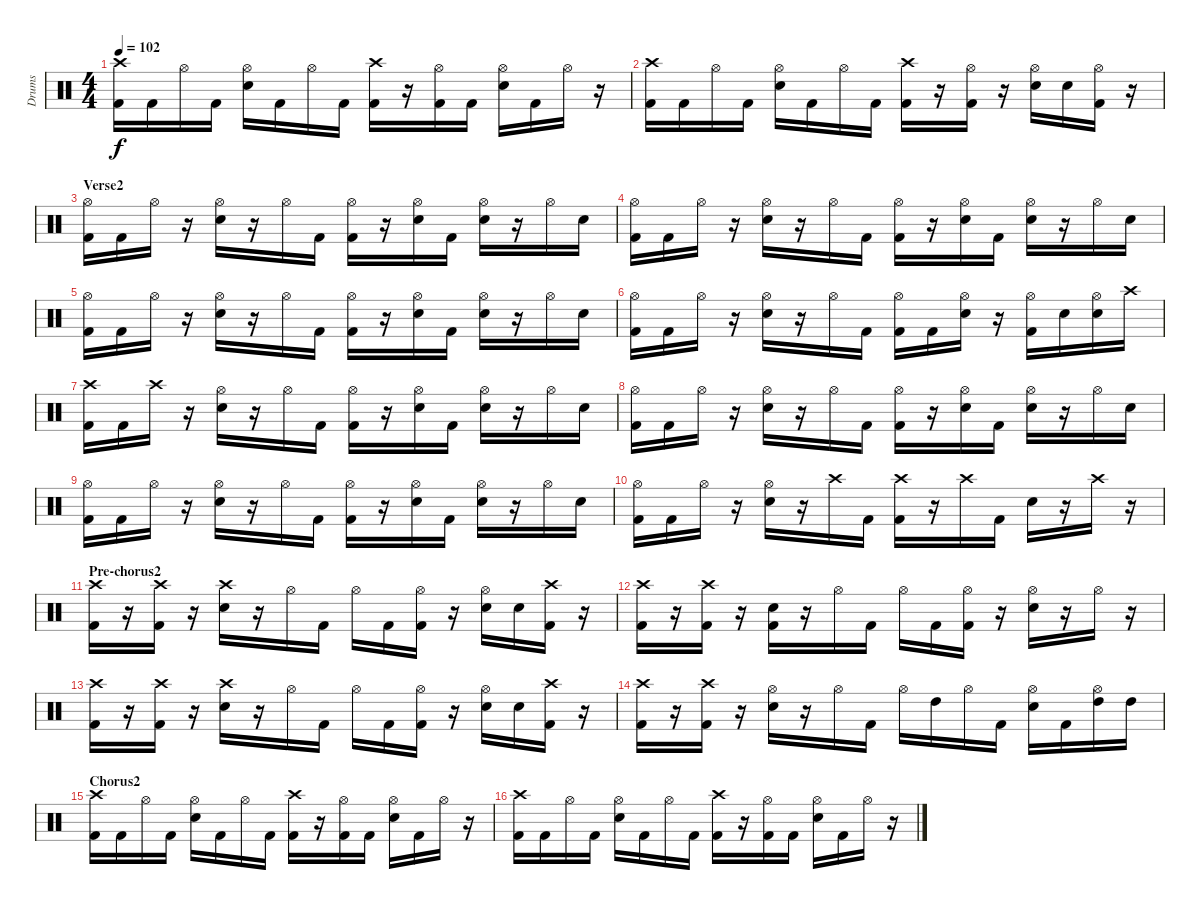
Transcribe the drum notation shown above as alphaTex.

\track ("Drums" "Drums") {instrument percussion}
\staff {score}
\articulation defaults
\ts (4 4)
\tempo 102
\clef neutral
\ks c
("Crash high (hit)" "Kick (hit) 2").16{dy f} "Kick (hit) 2".16 "Hi-Hat (open)".16 "Kick (hit) 2".16 ("Hi-Hat (open)" "Snare (hit) 2").16 "Kick (hit) 2".16 "Hi-Hat (open)".16 "Kick (hit) 2".16 ("Crash high (hit)" "Kick (hit) 2").16 r.16 ("Hi-Hat (open)" "Kick (hit) 2").16 "Kick (hit) 2".16 ("Hi-Hat (open)" "Snare (hit) 2").16 "Kick (hit) 2".16 "Hi-Hat (open)".16 r.16 |
("Crash high (hit)" "Kick (hit) 2").16 "Kick (hit) 2".16 "Hi-Hat (open)".16 "Kick (hit) 2".16 ("Hi-Hat (open)" "Snare (hit) 2").16 "Kick (hit) 2".16 "Hi-Hat (open)".16 "Kick (hit) 2".16 ("Crash high (hit)" "Kick (hit) 2").16 r.16 ("Hi-Hat (open)" "Kick (hit) 2").16 r.16 ("Hi-Hat (open)" "Snare (hit) 2").16 "Snare (hit) 2".16 ("Hi-Hat (open)" "Kick (hit) 2").16 r.16 |
\section ("" "Verse2")
("Hi-Hat (open)" "Kick (hit) 2").16 "Kick (hit) 2".16 "Hi-Hat (open)".16 r.16 ("Hi-Hat (open)" "Snare (hit) 2").16 r.16 "Hi-Hat (open)".16 "Kick (hit) 2".16 ("Hi-Hat (open)" "Kick (hit) 2").16 r.16 ("Hi-Hat (open)" "Snare (hit) 2").16 "Kick (hit) 2".16 ("Hi-Hat (open)" "Snare (hit) 2").16 r.16 "Hi-Hat (open)".16 "Snare (hit) 2".16 |
("Hi-Hat (open)" "Kick (hit) 2").16 "Kick (hit) 2".16 "Hi-Hat (open)".16 r.16 ("Hi-Hat (open)" "Snare (hit) 2").16 r.16 "Hi-Hat (open)".16 "Kick (hit) 2".16 ("Hi-Hat (open)" "Kick (hit) 2").16 r.16 ("Hi-Hat (open)" "Snare (hit) 2").16 "Kick (hit) 2".16 ("Hi-Hat (open)" "Snare (hit) 2").16 r.16 "Hi-Hat (open)".16 "Snare (hit) 2".16 |
("Hi-Hat (open)" "Kick (hit) 2").16 "Kick (hit) 2".16 "Hi-Hat (open)".16 r.16 ("Hi-Hat (open)" "Snare (hit) 2").16 r.16 "Hi-Hat (open)".16 "Kick (hit) 2".16 ("Hi-Hat (open)" "Kick (hit) 2").16 r.16 ("Hi-Hat (open)" "Snare (hit) 2").16 "Kick (hit) 2".16 ("Hi-Hat (open)" "Snare (hit) 2").16 r.16 "Hi-Hat (open)".16 "Snare (hit) 2".16 |
("Hi-Hat (open)" "Kick (hit) 2").16 "Kick (hit) 2".16 "Hi-Hat (open)".16 r.16 ("Hi-Hat (open)" "Snare (hit) 2").16 r.16 "Hi-Hat (open)".16 "Kick (hit) 2".16 ("Hi-Hat (open)" "Kick (hit) 2").16 "Kick (hit) 2".16 ("Hi-Hat (open)" "Snare (hit) 2").16 r.16 ("Hi-Hat (open)" "Kick (hit) 2").16 "Snare (hit) 2".16 ("Hi-Hat (open)" "Snare (hit) 2").16 "Crash high (hit)".16 |
("Crash high (hit)" "Kick (hit) 2").16 "Kick (hit) 2".16 "Crash high (hit)".16 r.16 ("Hi-Hat (open)" "Snare (hit) 2").16 r.16 "Hi-Hat (open)".16 "Kick (hit) 2".16 ("Hi-Hat (open)" "Kick (hit) 2").16 r.16 ("Hi-Hat (open)" "Snare (hit) 2").16 "Kick (hit) 2".16 ("Hi-Hat (open)" "Snare (hit) 2").16 r.16 "Hi-Hat (open)".16 "Snare (hit) 2".16 |
("Hi-Hat (open)" "Kick (hit) 2").16 "Kick (hit) 2".16 "Hi-Hat (open)".16 r.16 ("Hi-Hat (open)" "Snare (hit) 2").16 r.16 "Hi-Hat (open)".16 "Kick (hit) 2".16 ("Hi-Hat (open)" "Kick (hit) 2").16 r.16 ("Hi-Hat (open)" "Snare (hit) 2").16 "Kick (hit) 2".16 ("Hi-Hat (open)" "Snare (hit) 2").16 r.16 "Hi-Hat (open)".16 "Snare (hit) 2".16 |
("Hi-Hat (open)" "Kick (hit) 2").16 "Kick (hit) 2".16 "Hi-Hat (open)".16 r.16 ("Hi-Hat (open)" "Snare (hit) 2").16 r.16 "Hi-Hat (open)".16 "Kick (hit) 2".16 ("Hi-Hat (open)" "Kick (hit) 2").16 r.16 ("Hi-Hat (open)" "Snare (hit) 2").16 "Kick (hit) 2".16 ("Hi-Hat (open)" "Snare (hit) 2").16 r.16 "Hi-Hat (open)".16 "Snare (hit) 2".16 |
("Hi-Hat (open)" "Kick (hit) 2").16 "Kick (hit) 2".16 "Hi-Hat (open)".16 r.16 ("Hi-Hat (open)" "Snare (hit) 2").16 r.16 "Crash high (hit)".16 "Kick (hit) 2".16 ("Crash high (hit)" "Kick (hit) 2").16 r.16 "Crash high (hit)".16 "Kick (hit) 2".16 "Snare (hit) 2".16 r.16 "Crash high (hit)".16 r.16 |
\section ("" "Pre-chorus2")
("Crash high (hit)" "Kick (hit) 2").16 r.16 ("Crash high (hit)" "Kick (hit) 2").16 r.16 ("Crash high (hit)" "Snare (hit) 2").16 r.16 "Hi-Hat (open)".16 "Kick (hit) 2".16 "Hi-Hat (open)".16 "Kick (hit) 2".16 ("Hi-Hat (open)" "Kick (hit) 2").16 r.16 ("Hi-Hat (open)" "Snare (hit) 2").16 "Snare (hit) 2".16 ("Crash high (hit)" "Kick (hit) 2").16 r.16 |
("Crash high (hit)" "Kick (hit) 2").16 r.16 ("Crash high (hit)" "Kick (hit) 2").16 r.16 ("Kick (hit) 2" "Snare (hit) 2").16 r.16 "Hi-Hat (open)".16 "Kick (hit) 2".16 "Hi-Hat (open)".16 "Kick (hit) 2".16 ("Hi-Hat (open)" "Kick (hit) 2").16 r.16 ("Hi-Hat (open)" "Snare (hit) 2").16 r.16 "Hi-Hat (open)".16 r.16 |
("Crash high (hit)" "Kick (hit) 2").16 r.16 ("Crash high (hit)" "Kick (hit) 2").16 r.16 ("Crash high (hit)" "Snare (hit) 2").16 r.16 "Hi-Hat (open)".16 "Kick (hit) 2".16 "Hi-Hat (open)".16 "Kick (hit) 2".16 ("Hi-Hat (open)" "Kick (hit) 2").16 r.16 ("Hi-Hat (open)" "Snare (hit) 2").16 "Snare (hit) 2".16 ("Crash high (hit)" "Kick (hit) 2").16 r.16 |
("Crash high (hit)" "Kick (hit) 2").16 r.16 ("Crash high (hit)" "Kick (hit) 2").16 r.16 ("Hi-Hat (open)" "Snare (hit) 2").16 r.16 "Hi-Hat (open)".16 "Kick (hit) 2".16 "Hi-Hat (open)".16 "High Tom (hit)".16 "Hi-Hat (open)".16 "Kick (hit) 2".16 ("Hi-Hat (open)" "Snare (hit) 2").16 "Kick (hit) 2".16 ("High Tom (hit)" "Hi-Hat (open)").16 "High Tom (hit)".16 |
\section ("" "Chorus2")
("Crash high (hit)" "Kick (hit) 2").16 "Kick (hit) 2".16 "Hi-Hat (open)".16 "Kick (hit) 2".16 ("Hi-Hat (open)" "Snare (hit) 2").16 "Kick (hit) 2".16 "Hi-Hat (open)".16 "Kick (hit) 2".16 ("Crash high (hit)" "Kick (hit) 2").16 r.16 ("Hi-Hat (open)" "Kick (hit) 2").16 "Kick (hit) 2".16 ("Hi-Hat (open)" "Snare (hit) 2").16 "Kick (hit) 2".16 "Hi-Hat (open)".16 r.16 |
("Crash high (hit)" "Kick (hit) 2").16 "Kick (hit) 2".16 "Hi-Hat (open)".16 "Kick (hit) 2".16 ("Hi-Hat (open)" "Snare (hit) 2").16 "Kick (hit) 2".16 "Hi-Hat (open)".16 "Kick (hit) 2".16 ("Crash high (hit)" "Kick (hit) 2").16 r.16 ("Hi-Hat (open)" "Kick (hit) 2").16 "Kick (hit) 2".16 ("Hi-Hat (open)" "Snare (hit) 2").16 "Kick (hit) 2".16 "Hi-Hat (open)".16 r.16
